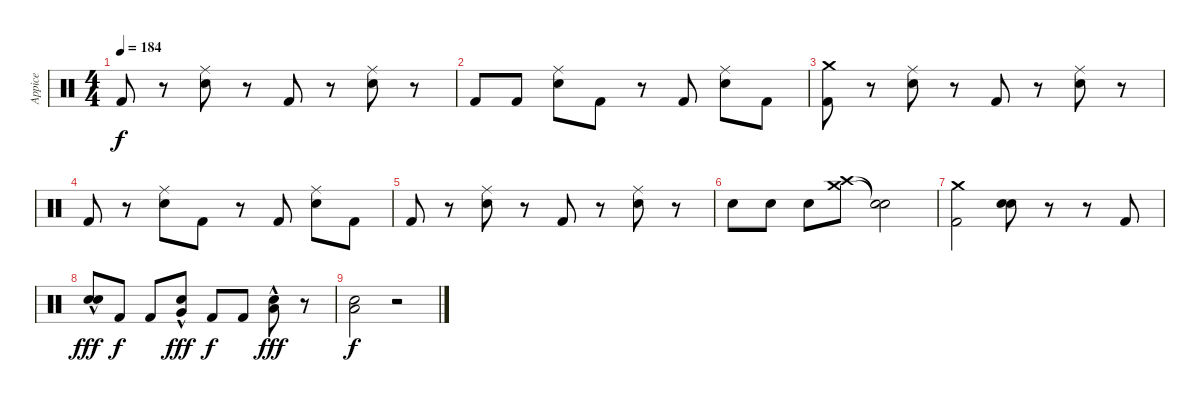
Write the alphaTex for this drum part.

\track ("Appice" "Appice") {instrument percussion}
\staff {score}
\articulation defaults
\ts (4 4)
\tempo 184
\clef neutral
\ks c "Kick (hit) 2".8{dy f}
r.8 ("Ride (middle)" "Snare (hit) 2").8 r.8 "Kick (hit) 2".8 r.8 ("Ride (middle)" "Snare (hit) 2").8 r.8 |
"Kick (hit) 2".8 "Kick (hit) 2".8 ("Ride (middle)" "Snare (hit) 2").8 "Kick (hit) 2".8 r.8 "Kick (hit) 2".8 ("Ride (middle)" "Snare (hit) 2").8 "Kick (hit) 2".8 |
("Crash medium (hit)" "Kick (hit) 2").8 r.8 ("Ride (middle)" "Snare (hit) 2").8 r.8 "Kick (hit) 2".8 r.8 ("Ride (middle)" "Snare (hit) 2").8 r.8 |
"Kick (hit) 2".8 r.8 ("Ride (middle)" "Snare (hit) 2").8 "Kick (hit) 2".8 r.8 "Kick (hit) 2".8 ("Ride (middle)" "Snare (hit) 2").8 "Kick (hit) 2".8 |
"Kick (hit) 2".8 r.8 ("Ride (middle)" "Snare (hit) 2").8 r.8 "Kick (hit) 2".8 r.8 ("Ride (middle)" "Snare (hit) 2").8 r.8 |
"Snare (hit) 2".8 "Snare (hit) 2".8 "Snare (hit) 2".8 ("Crash high (hit)" "Crash medium (hit)").8 ("Snare (hit)"{t} "Snare (hit)"{t}).2 |
("Crash medium (hit)" "Kick (hit) 2").2 ("Snare (hit) 2" "Snare (hit) 2").8 r.8 r.8 "Kick (hit) 2".8 |
("Snare (hit) 2"{hac} "Snare (hit) 2"{hac}).8{dy fff} "Kick (hit) 2".8{dy f} "Kick (hit) 2".8 ("Very Low Tom (hit)"{hac} "Snare (hit) 2"{hac}).8{dy fff} "Kick (hit) 2".8{dy f} "Kick (hit) 2".8 ("Low Floor Tom (hit)"{hac} "Snare (hit) 2"{hac}).8{dy fff} r.8 |
("Low Floor Tom (hit)" "Snare (hit) 2").2{dy f} r.2
